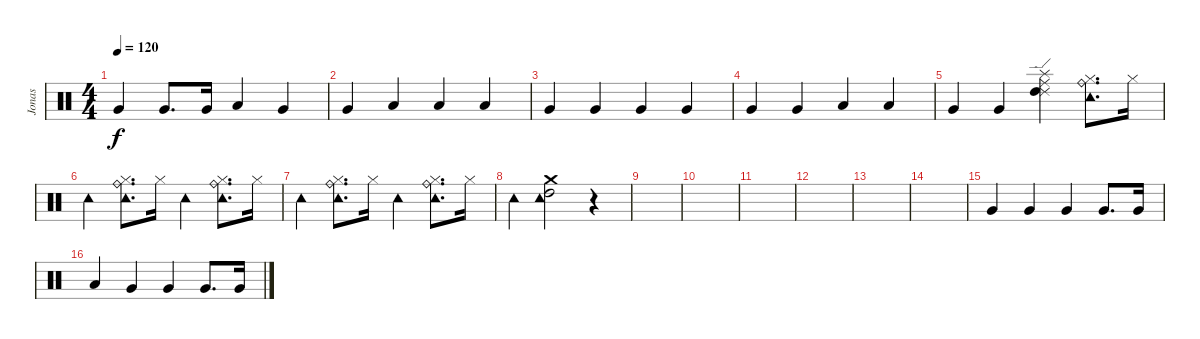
\track ("Jonas" "Jonas") {instrument percussion}
\staff {score}
\articulation defaults
\ts (4 4)
\tempo 120
\clef neutral
\ks c "Very Low Tom (hit)".4{dy f} "Very Low Tom (hit)".8{d} "Very Low Tom (hit)".16 "Low Floor Tom (hit)".4 "Very Low Tom (hit)".4
|
"Very Low Tom (hit)".4 "Low Floor Tom (hit)".4 "Low Floor Tom (hit)".4 "Low Floor Tom (hit)".4 |
"Very Low Tom (hit)".4 "Very Low Tom (hit)".4 "Very Low Tom (hit)".4 "Very Low Tom (hit)".4 |
"Very Low Tom (hit)".4 "Very Low Tom (hit)".4 "Low Floor Tom (hit)".4 "Low Floor Tom (hit)".4 |
"Very Low Tom (hit)".4 "Very Low Tom (hit)".4 ("Splash (hit)" "Ride (middle)" "Ride (edge) 2" "High Tom (hit)").4 ("Hi-Hat (closed)" "Tambourine (hit)" "Ride (bell)").8{d} "Hi-Hat (closed)".16 |
"Tambourine (hit)".4 ("Hi-Hat (closed)" "Tambourine (hit)" "Ride (bell)").8{d} "Hi-Hat (closed)".16 "Tambourine (hit)".4 ("Hi-Hat (closed)" "Tambourine (hit)" "Ride (bell)").8{d} "Hi-Hat (closed)".16 |
"Tambourine (hit)".4 ("Hi-Hat (closed)" "Tambourine (hit)" "Ride (bell)").8{d} "Hi-Hat (closed)".16 "Tambourine (hit)".4 ("Hi-Hat (closed)" "Tambourine (hit)" "Ride (bell)").8{d} "Hi-Hat (closed)".16 |
"Tambourine (hit)".4 ("High Tom (hit)" "Crash medium (hit)" "Tambourine (hit)").2 r.4 |
|
|
|
|
|
|
"Very Low Tom (hit)".4 "Very Low Tom (hit)".4 "Very Low Tom (hit)".4 "Very Low Tom (hit)".8{d} "Very Low Tom (hit)".16 |
"Low Floor Tom (hit)".4 "Very Low Tom (hit)".4 "Very Low Tom (hit)".4 "Very Low Tom (hit)".8{d} "Very Low Tom (hit)".16
